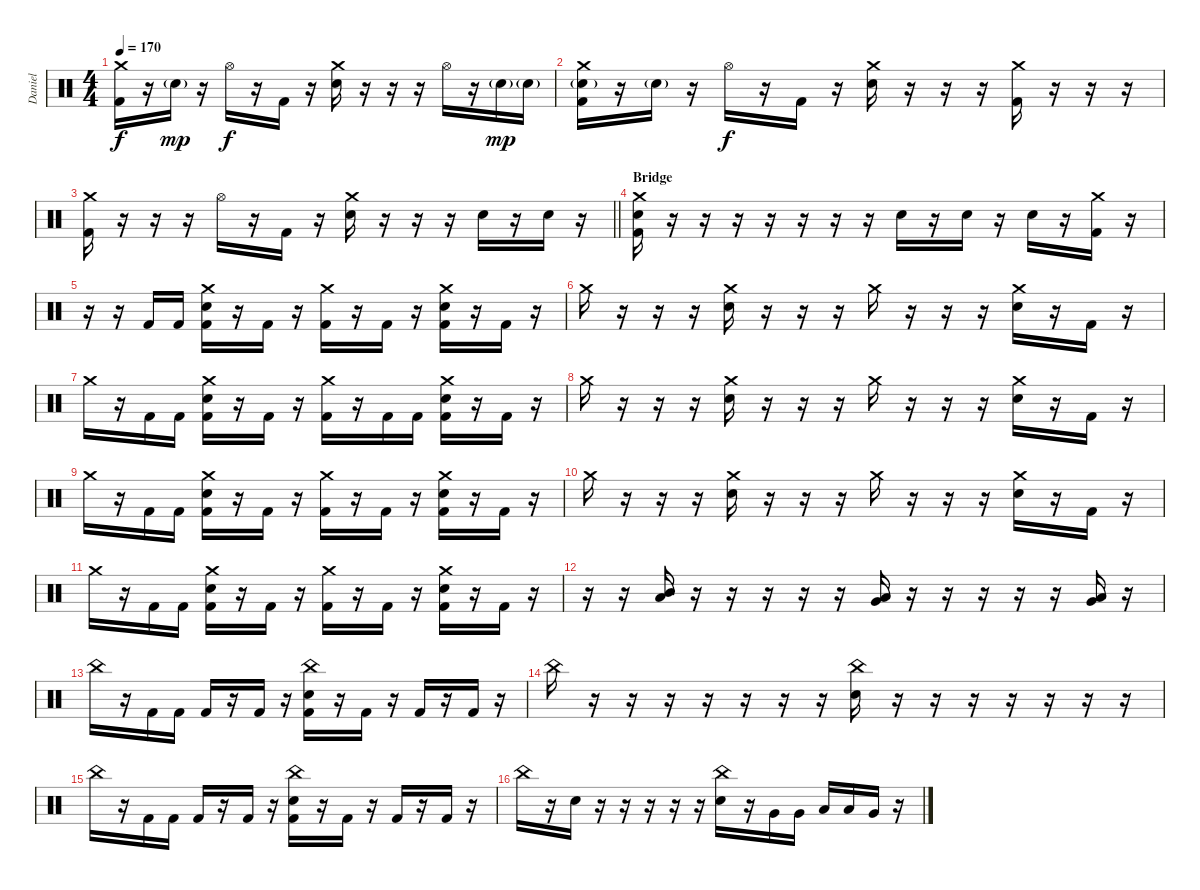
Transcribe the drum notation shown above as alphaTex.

\track ("Daniel" "Daniel") {instrument percussion}
\staff {score}
\articulation defaults
\ts (4 4)
\tempo 170
\clef neutral
\ks c
("Crash medium (hit)" "Kick (hit) 2").16{dy f} r.16 "Snare (hit) 2"{g}.16{dy mp} r.16 "Hi-Hat (open)".16{dy f} r.16 "Kick (hit) 2".16 r.16 ("Crash medium (hit)" "Snare (hit) 2").16 r.16 r.16 r.16 "Hi-Hat (open)".16 r.16 "Snare (hit) 2"{g}.16{dy mp} "Snare (hit) 2"{g}.16 |
("Crash medium (hit)" "Snare (hit) 2"{g} "Kick (hit) 2").16 r.16 "Snare (hit) 2"{g}.16 r.16 "Hi-Hat (open)".16{dy f} r.16 "Kick (hit) 2".16 r.16 ("Crash medium (hit)" "Snare (hit) 2").16 r.16 r.16 r.16 ("Crash medium (hit)" "Kick (hit) 2").16 r.16 r.16 r.16 |
\barLineRight lightlight
("Crash medium (hit)" "Kick (hit) 2").16 r.16 r.16 r.16 "Hi-Hat (open)".16 r.16 "Kick (hit) 2".16 r.16 ("Crash medium (hit)" "Snare (hit) 2").16 r.16 r.16 r.16 "Snare (hit) 2".16 r.16 "Snare (hit) 2".16 r.16 |
\section ("" "Bridge")
("Crash medium (hit)" "Snare (hit) 2" "Kick (hit) 2").16 r.16 r.16 r.16 r.16 r.16 r.16 r.16 "Snare (hit) 2".16 r.16 "Snare (hit) 2".16 r.16 "Snare (hit) 2".16 r.16 ("Crash medium (hit)" "Kick (hit) 2").16 r.16 |
r.16 r.16 "Kick (hit) 2".16 "Kick (hit) 2".16 ("Crash medium (hit)" "Snare (hit) 2" "Kick (hit) 2").16 r.16 "Kick (hit) 2".16 r.16 ("Crash medium (hit)" "Kick (hit) 2").16 r.16 "Kick (hit) 2".16 r.16 ("Crash medium (hit)" "Snare (hit) 2" "Kick (hit) 2").16 r.16 "Kick (hit) 2".16 r.16 |
"Crash medium (hit)".16 r.16 r.16 r.16 ("Crash medium (hit)" "Snare (hit) 2").16 r.16 r.16 r.16 "Crash medium (hit)".16 r.16 r.16 r.16 ("Crash medium (hit)" "Snare (hit) 2").16 r.16 "Kick (hit) 2".16 r.16 |
"Crash medium (hit)".16 r.16 "Kick (hit) 2".16 "Kick (hit) 2".16 ("Crash medium (hit)" "Snare (hit) 2" "Kick (hit) 2").16 r.16 "Kick (hit) 2".16 r.16 ("Crash medium (hit)" "Kick (hit) 2").16 r.16 "Kick (hit) 2".16 "Kick (hit) 2".16 ("Crash medium (hit)" "Snare (hit) 2" "Kick (hit) 2").16 r.16 "Kick (hit) 2".16 r.16 |
"Crash medium (hit)".16 r.16 r.16 r.16 ("Crash medium (hit)" "Snare (hit) 2").16 r.16 r.16 r.16 "Crash medium (hit)".16 r.16 r.16 r.16 ("Crash medium (hit)" "Snare (hit) 2").16 r.16 "Kick (hit) 2".16 r.16 |
"Crash medium (hit)".16 r.16 "Kick (hit) 2".16 "Kick (hit) 2".16 ("Crash medium (hit)" "Snare (hit) 2" "Kick (hit) 2").16 r.16 "Kick (hit) 2".16 r.16 ("Crash medium (hit)" "Kick (hit) 2").16 r.16 "Kick (hit) 2".16 r.16 ("Crash medium (hit)" "Snare (hit) 2" "Kick (hit) 2").16 r.16 "Kick (hit) 2".16 r.16 |
"Crash medium (hit)".16 r.16 r.16 r.16 ("Crash medium (hit)" "Snare (hit) 2").16 r.16 r.16 r.16 "Crash medium (hit)".16 r.16 r.16 r.16 ("Crash medium (hit)" "Snare (hit) 2").16 r.16 "Kick (hit) 2".16 r.16 |
"Crash medium (hit)".16 r.16 "Kick (hit) 2".16 "Kick (hit) 2".16 ("Crash medium (hit)" "Snare (hit) 2" "Kick (hit) 2").16 r.16 "Kick (hit) 2".16 r.16 ("Crash medium (hit)" "Kick (hit) 2").16 r.16 "Kick (hit) 2".16 r.16 ("Crash medium (hit)" "Snare (hit) 2" "Kick (hit) 2").16 r.16 "Kick (hit) 2".16 r.16 |
r.16 r.16 ("Mid Tom (hit)" "Low Tom (hit)").16 r.16 r.16 r.16 r.16 r.16 ("Low Tom (hit)" "Very Low Tom (hit)").16 r.16 r.16 r.16 r.16 r.16 ("Very Low Tom (hit)" "Low Floor Tom (hit)").16 r.16 |
"China (hit)".16 r.16 "Kick (hit) 2".16 "Kick (hit) 2".16 "Kick (hit) 2".16 r.16 "Kick (hit) 2".16 r.16 ("China (hit)" "Snare (hit) 2" "Kick (hit) 2").16 r.16 "Kick (hit) 2".16 r.16 "Kick (hit) 2".16 r.16 "Kick (hit) 2".16 r.16 |
"China (hit)".16 r.16 r.16 r.16 r.16 r.16 r.16 r.16 ("China (hit)" "Snare (hit) 2").16 r.16 r.16 r.16 r.16 r.16 r.16 r.16 |
"China (hit)".16 r.16 "Kick (hit) 2".16 "Kick (hit) 2".16 "Kick (hit) 2".16 r.16 "Kick (hit) 2".16 r.16 ("China (hit)" "Snare (hit) 2" "Kick (hit) 2").16 r.16 "Kick (hit) 2".16 r.16 "Kick (hit) 2".16 r.16 "Kick (hit) 2".16 r.16 |
"China (hit)".16 r.16 "Snare (hit) 2".16 r.16 r.16 r.16 r.16 r.16 ("China (hit)" "Snare (hit) 2").16 r.16 "Very Low Tom (hit)".16 "Very Low Tom (hit)".16 "Low Tom (hit)".16 "Low Tom (hit)".16 "Very Low Tom (hit)".16 r.16
